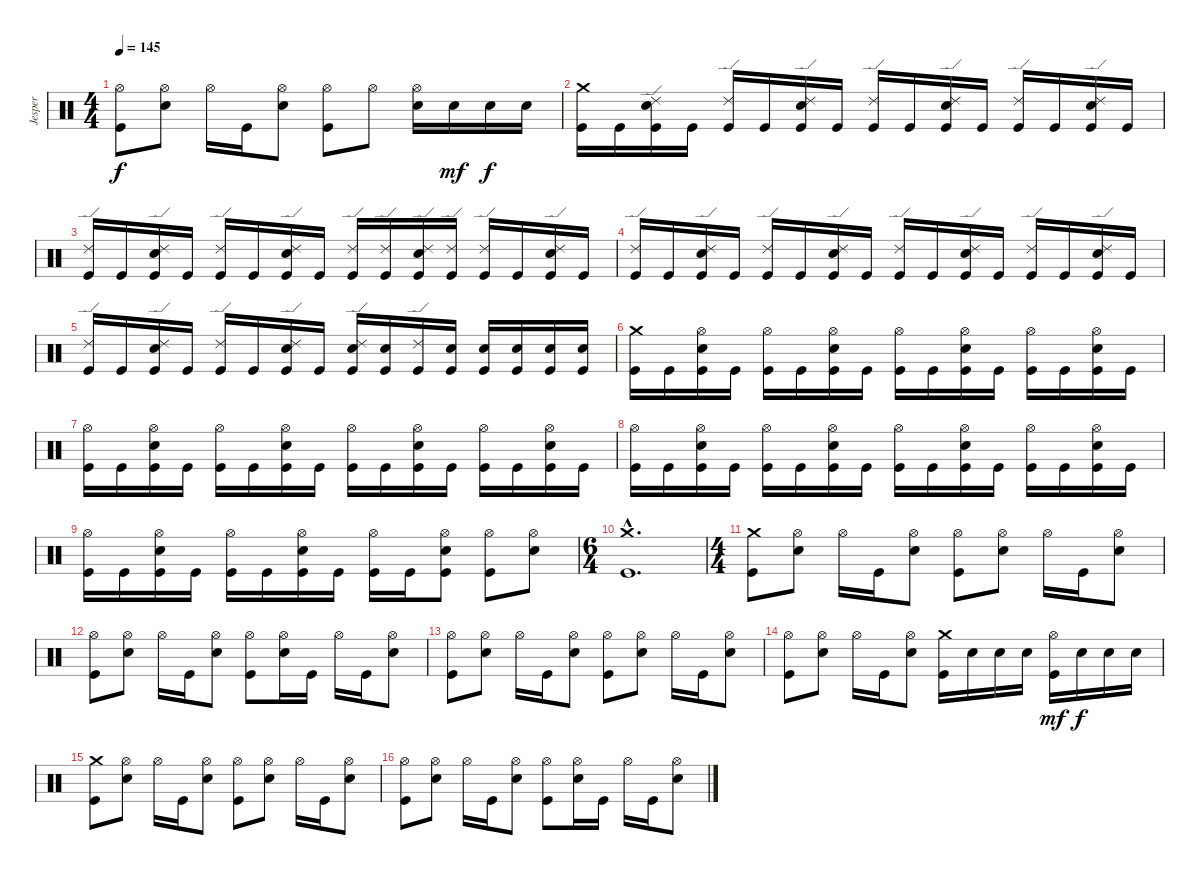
\track ("Jesper" "Jesper") {instrument percussion}
\staff {score}
\articulation defaults
\ts (4 4)
\tempo 145
\clef neutral
\ks c
("Hi-Hat (open)" "Kick (hit)").8{dy f} ("Hi-Hat (open)" "Electric Snare (hit)").8 "Hi-Hat (open)".16 "Kick (hit)".16 ("Hi-Hat (open)" "Electric Snare (hit)").8 ("Hi-Hat (open)" "Kick (hit)").8 "Hi-Hat (open)".8 ("Hi-Hat (open)" "Electric Snare (hit)").16 "Electric Snare (hit)".16{dy mf} "Electric Snare (hit)".16{dy f} "Electric Snare (hit)".16 |
("Crash medium (hit)" "Kick (hit)").16 "Kick (hit)".16 ("Ride (edge) 2" "Electric Snare (hit)" "Kick (hit)").16 "Kick (hit)".16 ("Ride (edge) 2" "Kick (hit)").16 "Kick (hit)".16 ("Ride (edge) 2" "Electric Snare (hit)" "Kick (hit)").16 "Kick (hit)".16 ("Ride (edge) 2" "Kick (hit)").16 "Kick (hit)".16 ("Ride (edge) 2" "Electric Snare (hit)" "Kick (hit)").16 "Kick (hit)".16 ("Ride (edge) 2" "Kick (hit)").16 "Kick (hit)".16 ("Ride (edge) 2" "Electric Snare (hit)" "Kick (hit)").16 "Kick (hit)".16 |
("Ride (edge) 2" "Kick (hit)").16 "Kick (hit)".16 ("Ride (edge) 2" "Electric Snare (hit)" "Kick (hit)").16 "Kick (hit)".16 ("Ride (edge) 2" "Kick (hit)").16 "Kick (hit)".16 ("Ride (edge) 2" "Electric Snare (hit)" "Kick (hit)").16 "Kick (hit)".16 ("Ride (edge) 2" "Kick (hit)").16 ("Ride (edge) 2" "Kick (hit)").16 ("Ride (edge) 2" "Electric Snare (hit)" "Kick (hit)").16 ("Ride (edge) 2" "Kick (hit)").16 ("Ride (edge) 2" "Kick (hit)").16 "Kick (hit)".16 ("Ride (edge) 2" "Electric Snare (hit)" "Kick (hit)").16 "Kick (hit)".16 |
("Ride (edge) 2" "Kick (hit)").16 "Kick (hit)".16 ("Ride (edge) 2" "Electric Snare (hit)" "Kick (hit)").16 "Kick (hit)".16 ("Ride (edge) 2" "Kick (hit)").16 "Kick (hit)".16 ("Ride (edge) 2" "Electric Snare (hit)" "Kick (hit)").16 "Kick (hit)".16 ("Ride (edge) 2" "Kick (hit)").16 "Kick (hit)".16 ("Ride (edge) 2" "Electric Snare (hit)" "Kick (hit)").16 "Kick (hit)".16 ("Ride (edge) 2" "Kick (hit)").16 "Kick (hit)".16 ("Ride (edge) 2" "Electric Snare (hit)" "Kick (hit)").16 "Kick (hit)".16 |
("Ride (edge) 2" "Kick (hit)").16 "Kick (hit)".16 ("Ride (edge) 2" "Electric Snare (hit)" "Kick (hit)").16 "Kick (hit)".16 ("Ride (edge) 2" "Kick (hit)").16 "Kick (hit)".16 ("Ride (edge) 2" "Electric Snare (hit)" "Kick (hit)").16 "Kick (hit)".16 ("Ride (edge) 2" "Electric Snare (hit)" "Kick (hit)").16 ("Electric Snare (hit)" "Kick (hit)").16 ("Ride (edge) 2" "Kick (hit)").16 ("Electric Snare (hit)" "Kick (hit)").16 ("Electric Snare (hit)" "Kick (hit)").16 ("Electric Snare (hit)" "Kick (hit)").16 ("Electric Snare (hit)" "Kick (hit)").16 ("Electric Snare (hit)" "Kick (hit)").16 |
("Crash medium (hit)" "Kick (hit)").16 "Kick (hit)".16 ("Hi-Hat (open)" "Electric Snare (hit)" "Kick (hit)").16 "Kick (hit)".16 ("Hi-Hat (open)" "Kick (hit)").16 "Kick (hit)".16 ("Hi-Hat (open)" "Electric Snare (hit)" "Kick (hit)").16 "Kick (hit)".16 ("Hi-Hat (open)" "Kick (hit)").16 "Kick (hit)".16 ("Hi-Hat (open)" "Electric Snare (hit)" "Kick (hit)").16 "Kick (hit)".16 ("Hi-Hat (open)" "Kick (hit)").16 "Kick (hit)".16 ("Hi-Hat (open)" "Electric Snare (hit)" "Kick (hit)").16 "Kick (hit)".16 |
("Hi-Hat (open)" "Kick (hit)").16 "Kick (hit)".16 ("Hi-Hat (open)" "Electric Snare (hit)" "Kick (hit)").16 "Kick (hit)".16 ("Hi-Hat (open)" "Kick (hit)").16 "Kick (hit)".16 ("Hi-Hat (open)" "Electric Snare (hit)" "Kick (hit)").16 "Kick (hit)".16 ("Hi-Hat (open)" "Kick (hit)").16 "Kick (hit)".16 ("Hi-Hat (open)" "Electric Snare (hit)" "Kick (hit)").16 "Kick (hit)".16 ("Hi-Hat (open)" "Kick (hit)").16 "Kick (hit)".16 ("Hi-Hat (open)" "Electric Snare (hit)" "Kick (hit)").16 "Kick (hit)".16 |
("Hi-Hat (open)" "Kick (hit)").16 "Kick (hit)".16 ("Hi-Hat (open)" "Electric Snare (hit)" "Kick (hit)").16 "Kick (hit)".16 ("Hi-Hat (open)" "Kick (hit)").16 "Kick (hit)".16 ("Hi-Hat (open)" "Electric Snare (hit)" "Kick (hit)").16 "Kick (hit)".16 ("Hi-Hat (open)" "Kick (hit)").16 "Kick (hit)".16 ("Hi-Hat (open)" "Electric Snare (hit)" "Kick (hit)").16 "Kick (hit)".16 ("Hi-Hat (open)" "Kick (hit)").16 "Kick (hit)".16 ("Hi-Hat (open)" "Electric Snare (hit)" "Kick (hit)").16 "Kick (hit)".16 |
("Hi-Hat (open)" "Kick (hit)").16 "Kick (hit)".16 ("Hi-Hat (open)" "Electric Snare (hit)" "Kick (hit)").16 "Kick (hit)".16 ("Hi-Hat (open)" "Kick (hit)").16 "Kick (hit)".16 ("Hi-Hat (open)" "Electric Snare (hit)" "Kick (hit)").16 "Kick (hit)".16 ("Hi-Hat (open)" "Kick (hit)").16 "Kick (hit)".16 ("Hi-Hat (open)" "Electric Snare (hit)" "Kick (hit)").8 ("Hi-Hat (open)" "Kick (hit)").8 ("Hi-Hat (open)" "Electric Snare (hit)").8 |
\ts (6 4)
("Crash medium (hit)"{hac} "Kick (hit)"{hac}).1{d} |
\ts (4 4)
("Crash medium (hit)" "Kick (hit)").8 ("Hi-Hat (open)" "Electric Snare (hit)").8 "Hi-Hat (open)".16 "Kick (hit)".16 ("Hi-Hat (open)" "Electric Snare (hit)").8 ("Hi-Hat (open)" "Kick (hit)").8 ("Hi-Hat (open)" "Electric Snare (hit)").8 "Hi-Hat (open)".16 "Kick (hit)".16 ("Hi-Hat (open)" "Electric Snare (hit)").8 |
("Hi-Hat (open)" "Kick (hit)").8 ("Hi-Hat (open)" "Electric Snare (hit)").8 "Hi-Hat (open)".16 "Kick (hit)".16 ("Hi-Hat (open)" "Electric Snare (hit)").8 ("Hi-Hat (open)" "Kick (hit)").8 ("Hi-Hat (open)" "Electric Snare (hit)").16 "Kick (hit)".16 "Hi-Hat (open)".16 "Kick (hit)".16 ("Hi-Hat (open)" "Electric Snare (hit)").8 |
("Hi-Hat (open)" "Kick (hit)").8 ("Hi-Hat (open)" "Electric Snare (hit)").8 "Hi-Hat (open)".16 "Kick (hit)".16 ("Hi-Hat (open)" "Electric Snare (hit)").8 ("Hi-Hat (open)" "Kick (hit)").8 ("Hi-Hat (open)" "Electric Snare (hit)").8 "Hi-Hat (open)".16 "Kick (hit)".16 ("Hi-Hat (open)" "Electric Snare (hit)").8 |
("Hi-Hat (open)" "Kick (hit)").8 ("Hi-Hat (open)" "Electric Snare (hit)").8 "Hi-Hat (open)".16 "Kick (hit)".16 ("Hi-Hat (open)" "Electric Snare (hit)").8 ("Crash medium (hit)" "Kick (hit)").16 "Electric Snare (hit)".16 "Electric Snare (hit)".16 "Electric Snare (hit)".16 ("Hi-Hat (open)" "Kick (hit)").16{dy mf} "Electric Snare (hit)".16{dy f} "Electric Snare (hit)".16 "Electric Snare (hit)".16 |
("Crash medium (hit)" "Kick (hit)").8 ("Hi-Hat (open)" "Electric Snare (hit)").8 "Hi-Hat (open)".16 "Kick (hit)".16 ("Hi-Hat (open)" "Electric Snare (hit)").8 ("Hi-Hat (open)" "Kick (hit)").8 ("Hi-Hat (open)" "Electric Snare (hit)").8 "Hi-Hat (open)".16 "Kick (hit)".16 ("Hi-Hat (open)" "Electric Snare (hit)").8 |
("Hi-Hat (open)" "Kick (hit)").8 ("Hi-Hat (open)" "Electric Snare (hit)").8 "Hi-Hat (open)".16 "Kick (hit)".16 ("Hi-Hat (open)" "Electric Snare (hit)").8 ("Hi-Hat (open)" "Kick (hit)").8 ("Hi-Hat (open)" "Electric Snare (hit)").16 "Kick (hit)".16 "Hi-Hat (open)".16 "Kick (hit)".16 ("Hi-Hat (open)" "Electric Snare (hit)").8
